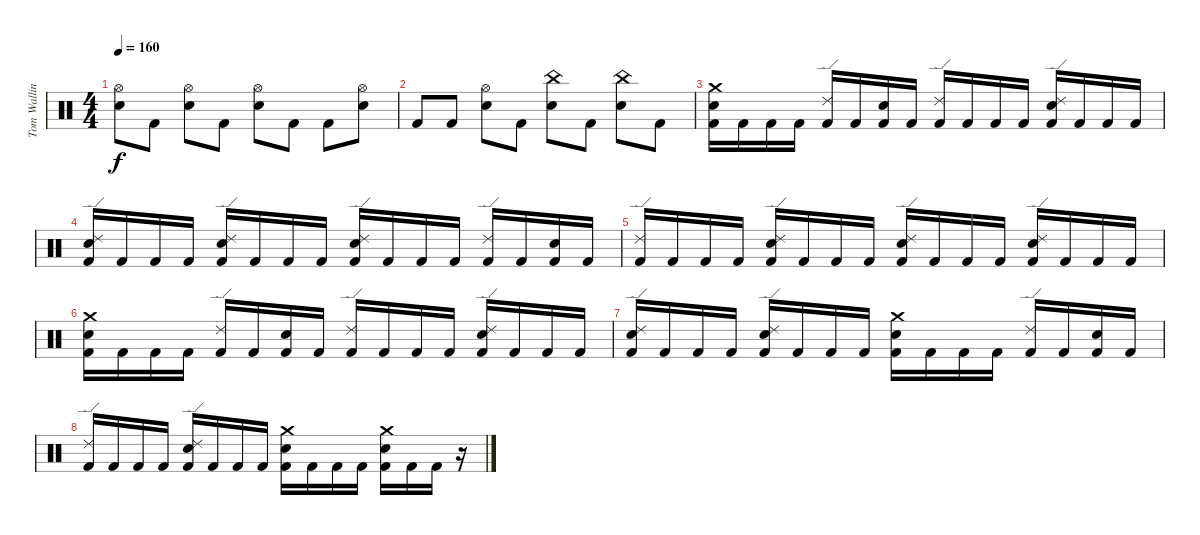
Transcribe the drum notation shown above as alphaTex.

\track ("Tom Walling (Drums)" "Tom Wallin") {instrument percussion}
\staff {score}
\articulation defaults
\ts (4 4)
\tempo 160
\clef neutral
\ks c
("Electric Snare (hit)" "Hi-Hat (open)").8{dy f} "Kick (hit) 2".8 ("Electric Snare (hit)" "Hi-Hat (open)").8 "Kick (hit) 2".8 ("Electric Snare (hit)" "Hi-Hat (open)").8 "Kick (hit) 2".8 "Kick (hit) 2".8 ("Hi-Hat (open)" "Electric Snare (hit)").8 |
"Kick (hit) 2".8 "Kick (hit) 2".8 ("Hi-Hat (open)" "Electric Snare (hit)").8 "Kick (hit) 2".8 ("China (hit)" "Electric Snare (hit)").8 "Kick (hit) 2".8 ("China (hit)" "Electric Snare (hit)").8 "Kick (hit) 2".8 |
("Crash medium (hit)" "Electric Snare (hit)" "Kick (hit) 2").16 "Kick (hit) 2".16 "Kick (hit) 2".16 "Kick (hit) 2".16 ("Ride (edge) 2" "Kick (hit) 2").16 "Kick (hit) 2".16 ("Electric Snare (hit)" "Kick (hit) 2").16 "Kick (hit) 2".16 ("Ride (edge) 2" "Kick (hit) 2").16 "Kick (hit) 2".16 "Kick (hit) 2".16 "Kick (hit) 2".16 ("Ride (edge) 2" "Electric Snare (hit)" "Kick (hit) 2").16 "Kick (hit) 2".16 "Kick (hit) 2".16 "Kick (hit) 2".16 |
("Ride (edge) 2" "Electric Snare (hit)" "Kick (hit) 2").16 "Kick (hit) 2".16 "Kick (hit) 2".16 "Kick (hit) 2".16 ("Ride (edge) 2" "Electric Snare (hit)" "Kick (hit) 2").16 "Kick (hit) 2".16 "Kick (hit) 2".16 "Kick (hit) 2".16 ("Ride (edge) 2" "Electric Snare (hit)" "Kick (hit) 2").16 "Kick (hit) 2".16 "Kick (hit) 2".16 "Kick (hit) 2".16 ("Ride (edge) 2" "Kick (hit) 2").16 "Kick (hit) 2".16 ("Electric Snare (hit)" "Kick (hit) 2").16 "Kick (hit) 2".16 |
("Ride (edge) 2" "Kick (hit) 2").16 "Kick (hit) 2".16 "Kick (hit) 2".16 "Kick (hit) 2".16 ("Ride (edge) 2" "Electric Snare (hit)" "Kick (hit) 2").16 "Kick (hit) 2".16 "Kick (hit) 2".16 "Kick (hit) 2".16 ("Ride (edge) 2" "Electric Snare (hit)" "Kick (hit) 2").16 "Kick (hit) 2".16 "Kick (hit) 2".16 "Kick (hit) 2".16 ("Ride (edge) 2" "Electric Snare (hit)" "Kick (hit) 2").16 "Kick (hit) 2".16 "Kick (hit) 2".16 "Kick (hit) 2".16 |
("Crash medium (hit)" "Electric Snare (hit)" "Kick (hit) 2").16 "Kick (hit) 2".16 "Kick (hit) 2".16 "Kick (hit) 2".16 ("Ride (edge) 2" "Kick (hit) 2").16 "Kick (hit) 2".16 ("Electric Snare (hit)" "Kick (hit) 2").16 "Kick (hit) 2".16 ("Ride (edge) 2" "Kick (hit) 2").16 "Kick (hit) 2".16 "Kick (hit) 2".16 "Kick (hit) 2".16 ("Ride (edge) 2" "Electric Snare (hit)" "Kick (hit) 2").16 "Kick (hit) 2".16 "Kick (hit) 2".16 "Kick (hit) 2".16 |
("Ride (edge) 2" "Electric Snare (hit)" "Kick (hit) 2").16 "Kick (hit) 2".16 "Kick (hit) 2".16 "Kick (hit) 2".16 ("Ride (edge) 2" "Electric Snare (hit)" "Kick (hit) 2").16 "Kick (hit) 2".16 "Kick (hit) 2".16 "Kick (hit) 2".16 ("Crash medium (hit)" "Electric Snare (hit)" "Kick (hit) 2").16 "Kick (hit) 2".16 "Kick (hit) 2".16 "Kick (hit) 2".16 ("Ride (edge) 2" "Kick (hit) 2").16 "Kick (hit) 2".16 ("Electric Snare (hit)" "Kick (hit) 2").16 "Kick (hit) 2".16 |
("Ride (edge) 2" "Kick (hit) 2").16 "Kick (hit) 2".16 "Kick (hit) 2".16 "Kick (hit) 2".16 ("Ride (edge) 2" "Electric Snare (hit)" "Kick (hit) 2").16 "Kick (hit) 2".16 "Kick (hit) 2".16 "Kick (hit) 2".16 ("Crash medium (hit)" "Electric Snare (hit)" "Kick (hit) 2").16 "Kick (hit) 2".16 "Kick (hit) 2".16 "Kick (hit) 2".16 ("Crash medium (hit)" "Electric Snare (hit)" "Kick (hit) 2").16 "Kick (hit) 2".16 "Kick (hit) 2".16 r.16
